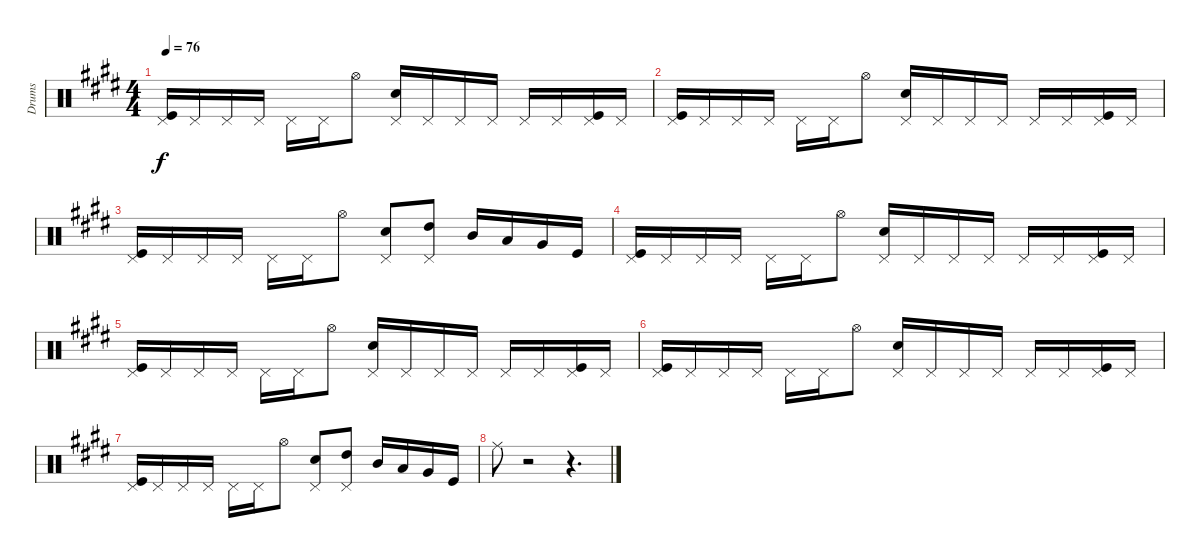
\track ("Drums" "Drums") {instrument percussion}
\staff {score}
\articulation defaults
\ts (4 4)
\tempo 76
\clef neutral
\ks c#minor
("Pedal Hi-Hat (hit)" "Kick (hit)").16{dy f} "Pedal Hi-Hat (hit)".16 "Pedal Hi-Hat (hit)".16 "Pedal Hi-Hat (hit)".16 "Pedal Hi-Hat (hit)".16 "Pedal Hi-Hat (hit)".16 "Hi-Hat (open)".8 ("Snare (hit) 2" "Pedal Hi-Hat (hit)").16 "Pedal Hi-Hat (hit)".16 "Pedal Hi-Hat (hit)".16 "Pedal Hi-Hat (hit)".16 "Pedal Hi-Hat (hit)".16 "Pedal Hi-Hat (hit)".16 ("Pedal Hi-Hat (hit)" "Kick (hit)").16 "Pedal Hi-Hat (hit)".16 |
("Pedal Hi-Hat (hit)" "Kick (hit)").16 "Pedal Hi-Hat (hit)".16 "Pedal Hi-Hat (hit)".16 "Pedal Hi-Hat (hit)".16 "Pedal Hi-Hat (hit)".16 "Pedal Hi-Hat (hit)".16 "Hi-Hat (open)".8 ("Snare (hit) 2" "Pedal Hi-Hat (hit)").16 "Pedal Hi-Hat (hit)".16 "Pedal Hi-Hat (hit)".16 "Pedal Hi-Hat (hit)".16 "Pedal Hi-Hat (hit)".16 "Pedal Hi-Hat (hit)".16 ("Pedal Hi-Hat (hit)" "Kick (hit)").16 "Pedal Hi-Hat (hit)".16 |
("Pedal Hi-Hat (hit)" "Kick (hit)").16 "Pedal Hi-Hat (hit)".16 "Pedal Hi-Hat (hit)".16 "Pedal Hi-Hat (hit)".16 "Pedal Hi-Hat (hit)".16 "Pedal Hi-Hat (hit)".16 "Hi-Hat (open)".8 ("Snare (hit) 2" "Pedal Hi-Hat (hit)").8 ("High Tom (hit)" "Pedal Hi-Hat (hit)").8 "Mid Tom (hit)".16 "Low Tom (hit)".16 "Very Low Tom (hit)".16 "Kick (hit)".16 |
("Pedal Hi-Hat (hit)" "Kick (hit)").16 "Pedal Hi-Hat (hit)".16 "Pedal Hi-Hat (hit)".16 "Pedal Hi-Hat (hit)".16 "Pedal Hi-Hat (hit)".16 "Pedal Hi-Hat (hit)".16 "Hi-Hat (open)".8 ("Snare (hit) 2" "Pedal Hi-Hat (hit)").16 "Pedal Hi-Hat (hit)".16 "Pedal Hi-Hat (hit)".16 "Pedal Hi-Hat (hit)".16 "Pedal Hi-Hat (hit)".16 "Pedal Hi-Hat (hit)".16 ("Pedal Hi-Hat (hit)" "Kick (hit)").16 "Pedal Hi-Hat (hit)".16 |
("Pedal Hi-Hat (hit)" "Kick (hit)").16 "Pedal Hi-Hat (hit)".16 "Pedal Hi-Hat (hit)".16 "Pedal Hi-Hat (hit)".16 "Pedal Hi-Hat (hit)".16 "Pedal Hi-Hat (hit)".16 "Hi-Hat (open)".8 ("Snare (hit) 2" "Pedal Hi-Hat (hit)").16 "Pedal Hi-Hat (hit)".16 "Pedal Hi-Hat (hit)".16 "Pedal Hi-Hat (hit)".16 "Pedal Hi-Hat (hit)".16 "Pedal Hi-Hat (hit)".16 ("Pedal Hi-Hat (hit)" "Kick (hit)").16 "Pedal Hi-Hat (hit)".16 |
("Pedal Hi-Hat (hit)" "Kick (hit)").16 "Pedal Hi-Hat (hit)".16 "Pedal Hi-Hat (hit)".16 "Pedal Hi-Hat (hit)".16 "Pedal Hi-Hat (hit)".16 "Pedal Hi-Hat (hit)".16 "Hi-Hat (open)".8 ("Snare (hit) 2" "Pedal Hi-Hat (hit)").16 "Pedal Hi-Hat (hit)".16 "Pedal Hi-Hat (hit)".16 "Pedal Hi-Hat (hit)".16 "Pedal Hi-Hat (hit)".16 "Pedal Hi-Hat (hit)".16 ("Pedal Hi-Hat (hit)" "Kick (hit)").16 "Pedal Hi-Hat (hit)".16 |
("Pedal Hi-Hat (hit)" "Kick (hit)").16 "Pedal Hi-Hat (hit)".16 "Pedal Hi-Hat (hit)".16 "Pedal Hi-Hat (hit)".16 "Pedal Hi-Hat (hit)".16 "Pedal Hi-Hat (hit)".16 "Hi-Hat (open)".8 ("Snare (hit) 2" "Pedal Hi-Hat (hit)").8 ("High Tom (hit)" "Pedal Hi-Hat (hit)").8 "Mid Tom (hit)".16 "Low Tom (hit)".16 "Very Low Tom (hit)".16 "Kick (hit)".16 |
"Ride (middle)".8 r.2 r.4{d}
